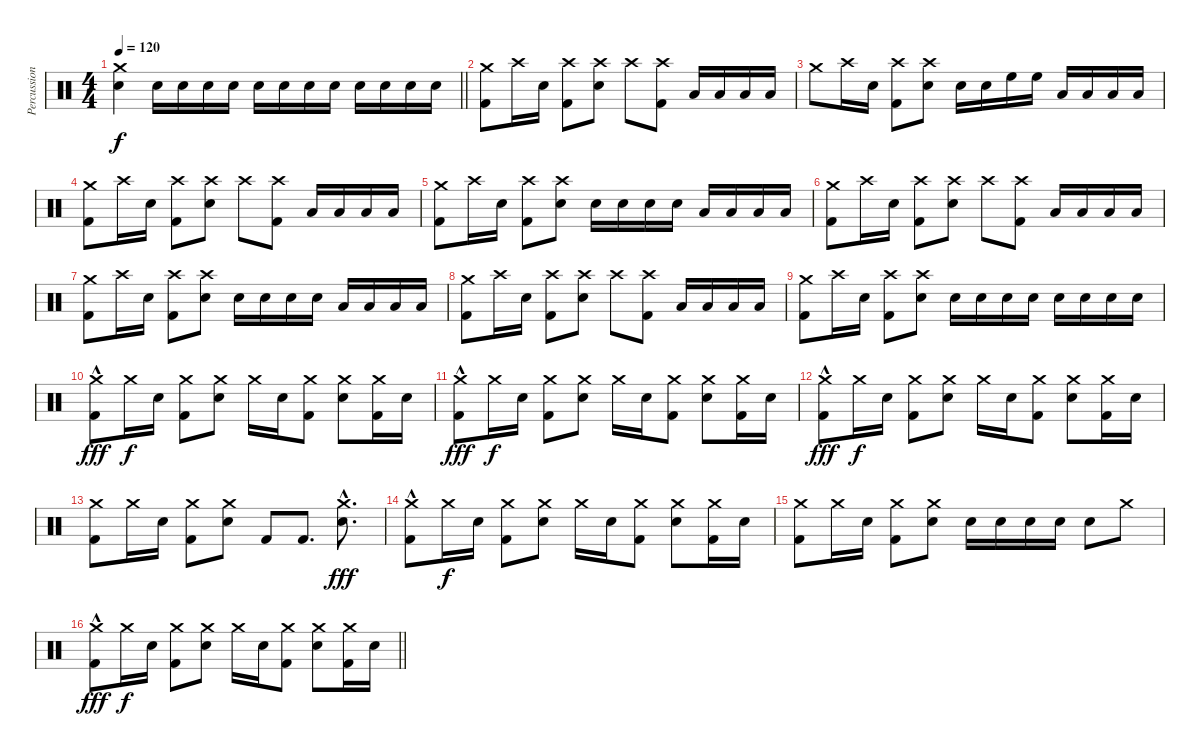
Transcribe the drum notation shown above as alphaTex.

\track ("Percussion" "Percussion") {instrument percussion}
\staff {score}
\articulation defaults
\ts (4 4)
\tempo 120
\clef neutral
\barLineRight lightlight
\ks c
("Crash medium (hit)" "Snare (hit) 2").4{dy f} "Snare (hit) 2".16 "Snare (hit) 2".16 "Snare (hit) 2".16 "Snare (hit) 2".16 "Snare (hit) 2".16 "Snare (hit) 2".16 "Snare (hit) 2".16 "Snare (hit) 2".16 "Snare (hit) 2".16 "Snare (hit) 2".16 "Snare (hit) 2".16 "Snare (hit) 2".16 |
("Crash medium (hit)" "Kick (hit) 2").8 "Crash high (hit)".16 "Snare (hit) 2".16 ("Crash high (hit)" "Kick (hit) 2").8 ("Crash high (hit)" "Snare (hit) 2").8 "Crash high (hit)".8 ("Crash high (hit)" "Kick (hit) 2").8 "Low Tom (hit)".16 "Low Tom (hit)".16 "Low Floor Tom (hit)".16 "Low Floor Tom (hit)".16 |
"Crash medium (hit)".8 "Crash high (hit)".16 "Snare (hit) 2".16 ("Crash high (hit)" "Kick (hit) 2").8 ("Crash high (hit)" "Snare (hit) 2").8 "Snare (hit) 2".16 "Snare (hit) 2".16 "High Floor Tom (hit)".16 "High Floor Tom (hit)".16 "Low Tom (hit)".16 "Low Tom (hit)".16 "Low Floor Tom (hit)".16 "Low Floor Tom (hit)".16 |
("Crash medium (hit)" "Kick (hit) 2").8 "Crash high (hit)".16 "Snare (hit) 2".16 ("Crash high (hit)" "Kick (hit) 2").8 ("Crash high (hit)" "Snare (hit) 2").8 "Crash high (hit)".8 ("Crash high (hit)" "Kick (hit) 2").8 "Low Tom (hit)".16 "Low Tom (hit)".16 "Low Floor Tom (hit)".16 "Low Floor Tom (hit)".16 |
("Crash medium (hit)" "Kick (hit) 2").8 "Crash high (hit)".16 "Snare (hit) 2".16 ("Crash high (hit)" "Kick (hit) 2").8 ("Crash high (hit)" "Snare (hit) 2").8 "Snare (hit) 2".16 "Snare (hit) 2".16 "Snare (hit) 2".16 "Snare (hit) 2".16 "Low Tom (hit)".16 "Low Tom (hit)".16 "Low Floor Tom (hit)".16 "Low Floor Tom (hit)".16 |
("Crash medium (hit)" "Kick (hit) 2").8 "Crash high (hit)".16 "Snare (hit) 2".16 ("Crash high (hit)" "Kick (hit) 2").8 ("Crash high (hit)" "Snare (hit) 2").8 "Crash high (hit)".8 ("Crash high (hit)" "Kick (hit) 2").8 "Low Tom (hit)".16 "Low Tom (hit)".16 "Low Floor Tom (hit)".16 "Low Floor Tom (hit)".16 |
("Crash medium (hit)" "Kick (hit) 2").8 "Crash high (hit)".16 "Snare (hit) 2".16 ("Crash high (hit)" "Kick (hit) 2").8 ("Crash high (hit)" "Snare (hit) 2").8 "Snare (hit) 2".16 "Snare (hit) 2".16 "Snare (hit) 2".16 "Snare (hit) 2".16 "Low Tom (hit)".16 "Low Tom (hit)".16 "Low Floor Tom (hit)".16 "Low Floor Tom (hit)".16 |
("Crash medium (hit)" "Kick (hit) 2").8 "Crash high (hit)".16 "Snare (hit) 2".16 ("Crash high (hit)" "Kick (hit) 2").8 ("Crash high (hit)" "Snare (hit) 2").8 "Crash high (hit)".8 ("Crash high (hit)" "Kick (hit) 2").8 "Low Tom (hit)".16 "Low Tom (hit)".16 "Low Floor Tom (hit)".16 "Low Floor Tom (hit)".16 |
("Crash medium (hit)" "Kick (hit) 2").8 "Crash high (hit)".16 "Snare (hit) 2".16 ("Crash high (hit)" "Kick (hit) 2").8 ("Crash high (hit)" "Snare (hit) 2").8 "Snare (hit) 2".16 "Snare (hit) 2".16 "Snare (hit) 2".16 "Snare (hit) 2".16 "Snare (hit) 2".16 "Snare (hit) 2".16 "Snare (hit) 2".16 "Snare (hit) 2".16 |
("Crash medium (hit)"{hac} "Kick (hit) 2").8{dy fff} "Crash medium (hit)".16{dy f} "Snare (hit) 2".16 ("Crash medium (hit)" "Kick (hit) 2").8 ("Crash medium (hit)" "Snare (hit) 2").8 "Crash medium (hit)".16 "Snare (hit) 2".16 ("Crash medium (hit)" "Kick (hit) 2").8 ("Crash medium (hit)" "Snare (hit) 2").8 ("Crash medium (hit)" "Kick (hit) 2").16 "Snare (hit) 2".16 |
("Crash medium (hit)"{hac} "Kick (hit) 2").8{dy fff} "Crash medium (hit)".16{dy f} "Snare (hit) 2".16 ("Crash medium (hit)" "Kick (hit) 2").8 ("Crash medium (hit)" "Snare (hit) 2").8 "Crash medium (hit)".16 "Snare (hit) 2".16 ("Crash medium (hit)" "Kick (hit) 2").8 ("Crash medium (hit)" "Snare (hit) 2").8 ("Crash medium (hit)" "Kick (hit) 2").16 "Snare (hit) 2".16 |
("Crash medium (hit)"{hac} "Kick (hit) 2").8{dy fff} "Crash medium (hit)".16{dy f} "Snare (hit) 2".16 ("Crash medium (hit)" "Kick (hit) 2").8 ("Crash medium (hit)" "Snare (hit) 2").8 "Crash medium (hit)".16 "Snare (hit) 2".16 ("Crash medium (hit)" "Kick (hit) 2").8 ("Crash medium (hit)" "Snare (hit) 2").8 ("Crash medium (hit)" "Kick (hit) 2").16 "Snare (hit) 2".16 |
("Crash medium (hit)" "Kick (hit) 2").8 "Crash medium (hit)".16 "Snare (hit) 2".16 ("Crash medium (hit)" "Kick (hit) 2").8 ("Crash medium (hit)" "Snare (hit) 2").8 "Kick (hit) 2".8 "Kick (hit) 2".8{d} ("Crash medium (hit)"{hac} "Snare (hit) 2").8{d dy fff} |
("Crash medium (hit)"{hac} "Kick (hit) 2").8 "Crash medium (hit)".16{dy f} "Snare (hit) 2".16 ("Crash medium (hit)" "Kick (hit) 2").8 ("Crash medium (hit)" "Snare (hit) 2").8 "Crash medium (hit)".16 "Snare (hit) 2".16 ("Crash medium (hit)" "Kick (hit) 2").8 ("Crash medium (hit)" "Snare (hit) 2").8 ("Crash medium (hit)" "Kick (hit) 2").16 "Snare (hit) 2".16 |
("Crash medium (hit)" "Kick (hit) 2").8 "Crash medium (hit)".16 "Snare (hit) 2".16 ("Crash medium (hit)" "Kick (hit) 2").8 ("Crash medium (hit)" "Snare (hit) 2").8 "Snare (hit) 2".16 "Snare (hit) 2".16 "Snare (hit) 2".16 "Snare (hit) 2".16 "Snare (hit) 2".8 "Crash medium (hit)".8 |
\barLineRight lightlight
("Crash medium (hit)"{hac} "Kick (hit) 2").8{dy fff} "Crash medium (hit)".16{dy f} "Snare (hit) 2".16 ("Crash medium (hit)" "Kick (hit) 2").8 ("Crash medium (hit)" "Snare (hit) 2").8 "Crash medium (hit)".16 "Snare (hit) 2".16 ("Crash medium (hit)" "Kick (hit) 2").8 ("Crash medium (hit)" "Snare (hit) 2").8 ("Crash medium (hit)" "Kick (hit) 2").16 "Snare (hit) 2".16
